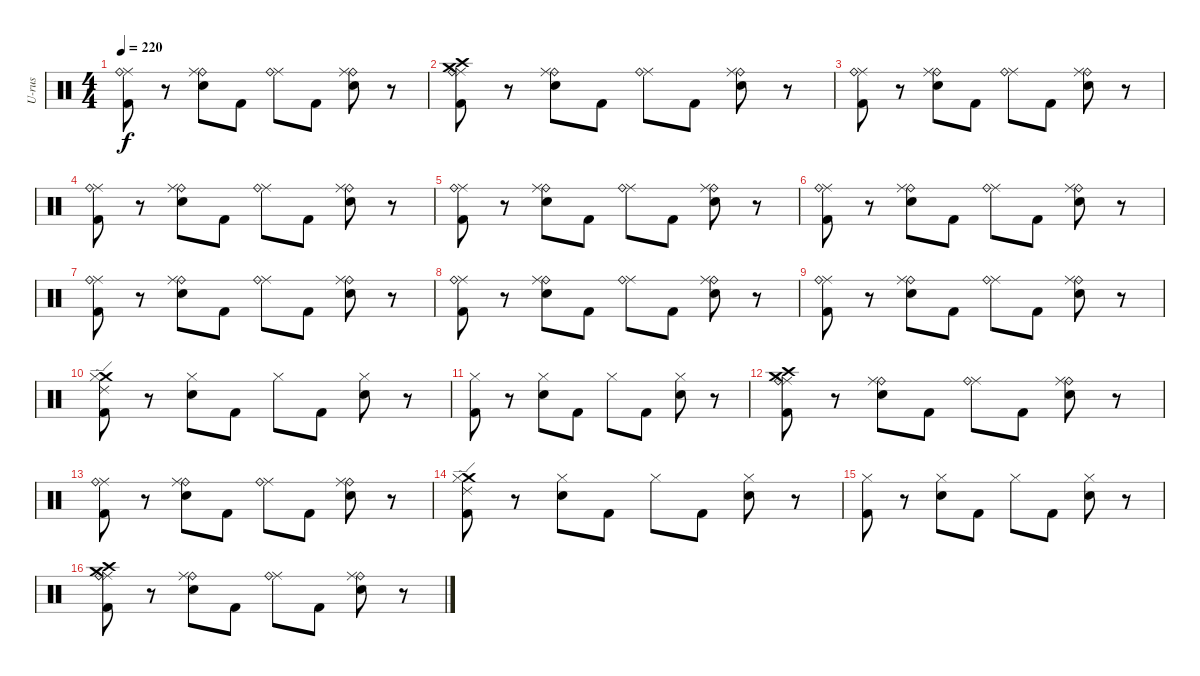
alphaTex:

\track ("U-rus" "U-rus") {instrument percussion}
\staff {score}
\articulation defaults
\ts (4 4)
\tempo 220
\clef neutral
\ks c
("Ride (middle)" "Ride (bell)" "Kick (hit) 2").8{dy f} r.8 ("Ride (bell)" "Ride (middle)" "Snare (hit) 2").8 "Kick (hit) 2".8 ("Ride (middle)" "Ride (bell)").8 "Kick (hit) 2".8 ("Ride (bell)" "Ride (middle)" "Snare (hit) 2").8 r.8 |
("Crash medium (hit)" "Crash high (hit)" "Ride (middle)" "Ride (bell)" "Kick (hit) 2").8 r.8 ("Ride (bell)" "Ride (middle)" "Snare (hit) 2").8 "Kick (hit) 2".8 ("Ride (middle)" "Ride (bell)").8 "Kick (hit) 2".8 ("Ride (bell)" "Ride (middle)" "Snare (hit) 2").8 r.8 |
("Ride (middle)" "Ride (bell)" "Kick (hit) 2").8 r.8 ("Ride (bell)" "Ride (middle)" "Snare (hit) 2").8 "Kick (hit) 2".8 ("Ride (middle)" "Ride (bell)").8 "Kick (hit) 2".8 ("Ride (bell)" "Ride (middle)" "Snare (hit) 2").8 r.8 |
("Ride (middle)" "Ride (bell)" "Kick (hit) 2").8 r.8 ("Ride (bell)" "Ride (middle)" "Snare (hit) 2").8 "Kick (hit) 2".8 ("Ride (middle)" "Ride (bell)").8 "Kick (hit) 2".8 ("Ride (bell)" "Ride (middle)" "Snare (hit) 2").8 r.8 |
("Ride (middle)" "Ride (bell)" "Kick (hit) 2").8 r.8 ("Ride (bell)" "Ride (middle)" "Snare (hit) 2").8 "Kick (hit) 2".8 ("Ride (middle)" "Ride (bell)").8 "Kick (hit) 2".8 ("Ride (bell)" "Ride (middle)" "Snare (hit) 2").8 r.8 |
("Ride (middle)" "Ride (bell)" "Kick (hit) 2").8 r.8 ("Ride (bell)" "Ride (middle)" "Snare (hit) 2").8 "Kick (hit) 2".8 ("Ride (middle)" "Ride (bell)").8 "Kick (hit) 2".8 ("Ride (bell)" "Ride (middle)" "Snare (hit) 2").8 r.8 |
("Ride (middle)" "Ride (bell)" "Kick (hit) 2").8 r.8 ("Ride (bell)" "Ride (middle)" "Snare (hit) 2").8 "Kick (hit) 2".8 ("Ride (middle)" "Ride (bell)").8 "Kick (hit) 2".8 ("Ride (bell)" "Ride (middle)" "Snare (hit) 2").8 r.8 |
("Ride (middle)" "Ride (bell)" "Kick (hit) 2").8 r.8 ("Ride (bell)" "Ride (middle)" "Snare (hit) 2").8 "Kick (hit) 2".8 ("Ride (middle)" "Ride (bell)").8 "Kick (hit) 2".8 ("Ride (bell)" "Ride (middle)" "Snare (hit) 2").8 r.8 |
("Ride (middle)" "Ride (bell)" "Kick (hit) 2").8 r.8 ("Ride (bell)" "Ride (middle)" "Snare (hit) 2").8 "Kick (hit) 2".8 ("Ride (middle)" "Ride (bell)").8 "Kick (hit) 2".8 ("Ride (bell)" "Ride (middle)" "Snare (hit) 2").8 r.8 |
("Crash medium (hit)" "Ride (edge) 2" "Hi-Hat (closed)" "Kick (hit) 2").8 r.8 ("Hi-Hat (closed)" "Snare (hit) 2").8 "Kick (hit) 2".8 "Hi-Hat (closed)".8 "Kick (hit) 2".8 ("Hi-Hat (closed)" "Snare (hit) 2").8 r.8 |
("Hi-Hat (closed)" "Kick (hit) 2").8 r.8 ("Hi-Hat (closed)" "Snare (hit) 2").8 "Kick (hit) 2".8 "Hi-Hat (closed)".8 "Kick (hit) 2".8 ("Hi-Hat (closed)" "Snare (hit) 2").8 r.8 |
("Crash medium (hit)" "Crash high (hit)" "Ride (middle)" "Ride (bell)" "Kick (hit) 2").8 r.8 ("Ride (bell)" "Ride (middle)" "Snare (hit) 2").8 "Kick (hit) 2".8 ("Ride (middle)" "Ride (bell)").8 "Kick (hit) 2".8 ("Ride (bell)" "Ride (middle)" "Snare (hit) 2").8 r.8 |
("Ride (middle)" "Ride (bell)" "Kick (hit) 2").8 r.8 ("Ride (bell)" "Ride (middle)" "Snare (hit) 2").8 "Kick (hit) 2".8 ("Ride (middle)" "Ride (bell)").8 "Kick (hit) 2".8 ("Ride (bell)" "Ride (middle)" "Snare (hit) 2").8 r.8 |
("Crash medium (hit)" "Ride (edge) 2" "Hi-Hat (closed)" "Kick (hit) 2").8 r.8 ("Hi-Hat (closed)" "Snare (hit) 2").8 "Kick (hit) 2".8 "Hi-Hat (closed)".8 "Kick (hit) 2".8 ("Hi-Hat (closed)" "Snare (hit) 2").8 r.8 |
("Hi-Hat (closed)" "Kick (hit) 2").8 r.8 ("Hi-Hat (closed)" "Snare (hit) 2").8 "Kick (hit) 2".8 "Hi-Hat (closed)".8 "Kick (hit) 2".8 ("Hi-Hat (closed)" "Snare (hit) 2").8 r.8 |
("Crash medium (hit)" "Crash high (hit)" "Ride (middle)" "Ride (bell)" "Kick (hit) 2").8 r.8 ("Ride (bell)" "Ride (middle)" "Snare (hit) 2").8 "Kick (hit) 2".8 ("Ride (middle)" "Ride (bell)").8 "Kick (hit) 2".8 ("Ride (bell)" "Ride (middle)" "Snare (hit) 2").8 r.8
